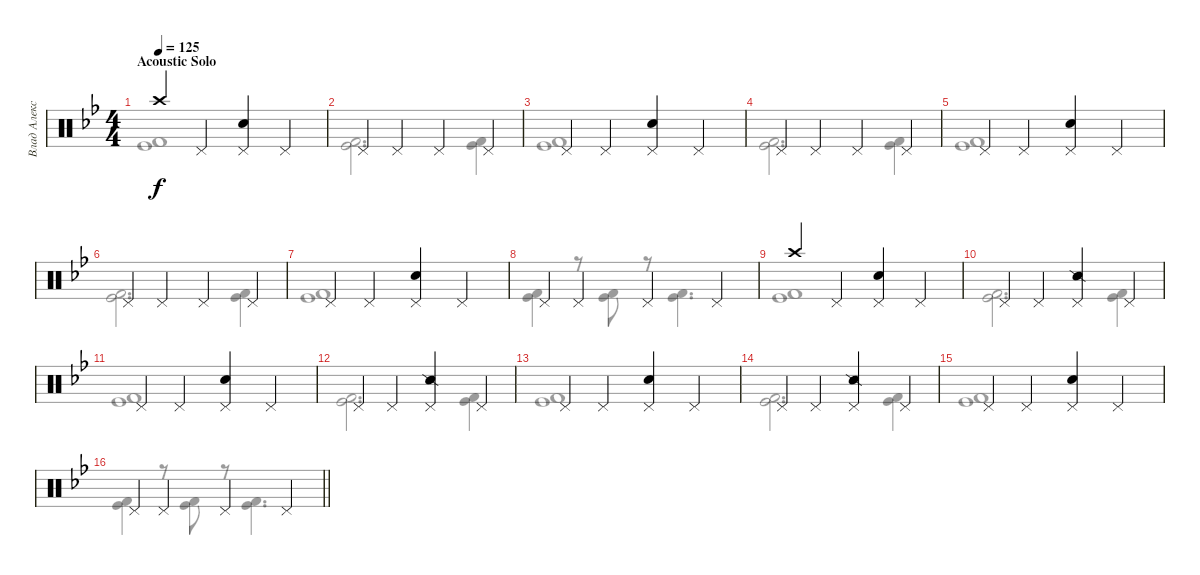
\track ("Влад Алексеенко" "Влад Алекс") {instrument percussion}
\staff {score}
\articulation defaults
\voice
\ts (4 4)
\section ("" "Acoustic Solo")
\tempo 125
\clef neutral
\ks bb "Crash high (hit)".4{dy f} "Pedal Hi-Hat (hit)".4
("Snare (hit) 2" "Pedal Hi-Hat (hit)").4 "Pedal Hi-Hat (hit)".4 |
"Pedal Hi-Hat (hit)".4 "Pedal Hi-Hat (hit)".4 "Pedal Hi-Hat (hit)".4 "Pedal Hi-Hat (hit)".4 |
"Pedal Hi-Hat (hit)".4 "Pedal Hi-Hat (hit)".4 ("Snare (hit) 2" "Pedal Hi-Hat (hit)").4 "Pedal Hi-Hat (hit)".4 |
"Pedal Hi-Hat (hit)".4 "Pedal Hi-Hat (hit)".4 "Pedal Hi-Hat (hit)".4 "Pedal Hi-Hat (hit)".4 |
"Pedal Hi-Hat (hit)".4 "Pedal Hi-Hat (hit)".4 ("Snare (hit) 2" "Pedal Hi-Hat (hit)").4 "Pedal Hi-Hat (hit)".4 |
"Pedal Hi-Hat (hit)".4 "Pedal Hi-Hat (hit)".4 "Pedal Hi-Hat (hit)".4 "Pedal Hi-Hat (hit)".4 |
"Pedal Hi-Hat (hit)".4 "Pedal Hi-Hat (hit)".4 ("Snare (hit) 2" "Pedal Hi-Hat (hit)").4 "Pedal Hi-Hat (hit)".4 |
"Pedal Hi-Hat (hit)".4 "Pedal Hi-Hat (hit)".4 "Pedal Hi-Hat (hit)".4 "Pedal Hi-Hat (hit)".4 |
"Crash high (hit)".4 "Pedal Hi-Hat (hit)".4 ("Snare (hit) 2" "Pedal Hi-Hat (hit)").4 "Pedal Hi-Hat (hit)".4 |
"Pedal Hi-Hat (hit)".4 "Pedal Hi-Hat (hit)".4 ("Snare (side stick) 2" "Pedal Hi-Hat (hit)").4 "Pedal Hi-Hat (hit)".4 |
"Pedal Hi-Hat (hit)".4 "Pedal Hi-Hat (hit)".4 ("Snare (hit) 2" "Pedal Hi-Hat (hit)").4 "Pedal Hi-Hat (hit)".4 |
"Pedal Hi-Hat (hit)".4 "Pedal Hi-Hat (hit)".4 ("Snare (side stick) 2" "Pedal Hi-Hat (hit)").4 "Pedal Hi-Hat (hit)".4 |
"Pedal Hi-Hat (hit)".4 "Pedal Hi-Hat (hit)".4 ("Snare (hit) 2" "Pedal Hi-Hat (hit)").4 "Pedal Hi-Hat (hit)".4 |
"Pedal Hi-Hat (hit)".4 "Pedal Hi-Hat (hit)".4 ("Snare (side stick) 2" "Pedal Hi-Hat (hit)").4 "Pedal Hi-Hat (hit)".4 |
"Pedal Hi-Hat (hit)".4 "Pedal Hi-Hat (hit)".4 ("Snare (hit) 2" "Pedal Hi-Hat (hit)").4 "Pedal Hi-Hat (hit)".4 |
\barLineRight lightlight "Pedal Hi-Hat (hit)".4 "Pedal Hi-Hat (hit)".4 "Pedal Hi-Hat (hit)".4 "Pedal Hi-Hat (hit)".4
\voice
\clef neutral
\ottava regular
\simile none
\ks bb
("Kick (hit)" "Kick (hit) 2").1{dy f} |
("Kick (hit)" "Kick (hit) 2").2{d} ("Kick (hit)" "Kick (hit) 2").4 |
("Kick (hit)" "Kick (hit) 2").1 |
("Kick (hit)" "Kick (hit) 2").2{d} ("Kick (hit)" "Kick (hit) 2").4 |
("Kick (hit)" "Kick (hit) 2").1 |
("Kick (hit)" "Kick (hit) 2").2{d} ("Kick (hit)" "Kick (hit) 2").4 |
("Kick (hit)" "Kick (hit) 2").1 |
("Kick (hit)" "Kick (hit) 2").4 r.8 ("Kick (hit)" "Kick (hit) 2").8 r.8 ("Kick (hit)" "Kick (hit) 2").4{d} |
("Kick (hit)" "Kick (hit) 2").1 |
("Kick (hit)" "Kick (hit) 2").2{d} ("Kick (hit)" "Kick (hit) 2").4 |
("Kick (hit)" "Kick (hit) 2").1 |
("Kick (hit)" "Kick (hit) 2").2{d} ("Kick (hit)" "Kick (hit) 2").4 |
("Kick (hit)" "Kick (hit) 2").1 |
("Kick (hit)" "Kick (hit) 2").2{d} ("Kick (hit)" "Kick (hit) 2").4 |
("Kick (hit)" "Kick (hit) 2").1 |
\barLineRight lightlight
("Kick (hit)" "Kick (hit) 2").4 r.8 ("Kick (hit)" "Kick (hit) 2").8 r.8 ("Kick (hit)" "Kick (hit) 2").4{d}
